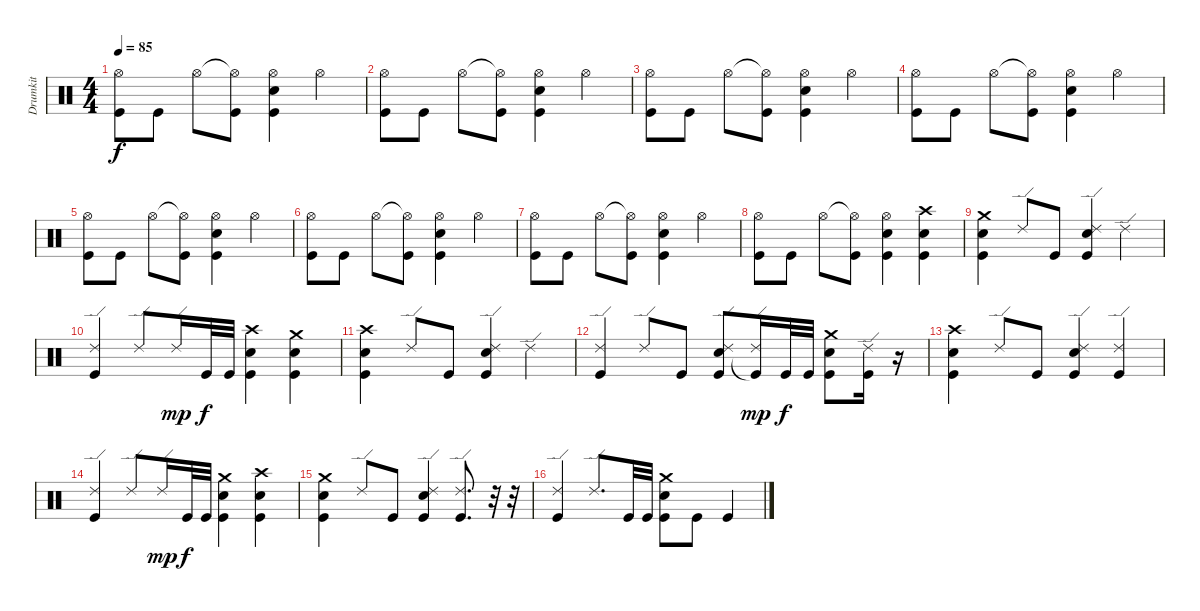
\track ("Drumkit" "Drumkit") {instrument percussion}
\staff {score}
\articulation defaults
\ts (4 4)
\tempo 85
\clef neutral
\ks c
("Hi-Hat (open)" "Kick (hit)").8{dy f} "Kick (hit)".8 "Hi-Hat (open)".8 ("Hi-Hat (open)"{t} "Kick (hit)").8 ("Hi-Hat (open)" "Snare (hit) 2" "Kick (hit)").4 "Hi-Hat (open)".4 |
("Hi-Hat (open)" "Kick (hit)").8 "Kick (hit)".8 "Hi-Hat (open)".8 ("Hi-Hat (open)"{t} "Kick (hit)").8 ("Hi-Hat (open)" "Snare (hit) 2" "Kick (hit)").4 "Hi-Hat (open)".4 |
("Hi-Hat (open)" "Kick (hit)").8 "Kick (hit)".8 "Hi-Hat (open)".8 ("Hi-Hat (open)"{t} "Kick (hit)").8 ("Hi-Hat (open)" "Snare (hit) 2" "Kick (hit)").4 "Hi-Hat (open)".4 |
("Hi-Hat (open)" "Kick (hit)").8 "Kick (hit)".8 "Hi-Hat (open)".8 ("Hi-Hat (open)"{t} "Kick (hit)").8 ("Hi-Hat (open)" "Snare (hit) 2" "Kick (hit)").4 "Hi-Hat (open)".4 |
("Hi-Hat (open)" "Kick (hit)").8 "Kick (hit)".8 "Hi-Hat (open)".8 ("Hi-Hat (open)"{t} "Kick (hit)").8 ("Hi-Hat (open)" "Snare (hit) 2" "Kick (hit)").4 "Hi-Hat (open)".4 |
("Hi-Hat (open)" "Kick (hit)").8 "Kick (hit)".8 "Hi-Hat (open)".8 ("Hi-Hat (open)"{t} "Kick (hit)").8 ("Hi-Hat (open)" "Snare (hit) 2" "Kick (hit)").4 "Hi-Hat (open)".4 |
("Hi-Hat (open)" "Kick (hit)").8 "Kick (hit)".8 "Hi-Hat (open)".8 ("Hi-Hat (open)"{t} "Kick (hit)").8 ("Hi-Hat (open)" "Snare (hit) 2" "Kick (hit)").4 "Hi-Hat (open)".4 |
("Hi-Hat (open)" "Kick (hit)").8 "Kick (hit)".8 "Hi-Hat (open)".8 ("Hi-Hat (open)"{t} "Kick (hit)").8 ("Hi-Hat (open)" "Snare (hit) 2" "Kick (hit)").4 ("Crash high (hit)" "Snare (hit) 2" "Kick (hit)").4 |
("Crash medium (hit)" "Snare (hit) 2" "Kick (hit)").4 "Ride (edge) 2".8 "Kick (hit)".8 ("Ride (edge) 2" "Snare (hit) 2" "Kick (hit)").4 "Ride (edge) 2".4 |
("Ride (edge) 2" "Kick (hit)").4 "Ride (edge) 2".8 "Ride (edge) 2".16{dy mp} "Kick (hit)".32{dy f} "Kick (hit)".32 ("Crash high (hit)" "Snare (hit) 2" "Kick (hit)").4 ("Crash medium (hit)" "Snare (hit) 2" "Kick (hit)").4 |
("Crash high (hit)" "Snare (hit) 2" "Kick (hit)").4 "Ride (edge) 2".8 "Kick (hit)".8 ("Ride (edge) 2" "Snare (hit) 2" "Kick (hit)").4 "Ride (edge) 2".4 |
("Ride (edge) 2" "Kick (hit)").4 "Ride (edge) 2".8 "Kick (hit)".8 ("Ride (edge) 2" "Snare (hit) 2" "Kick (hit)").8 ("Ride (edge) 2" "Kick (hit)"{t}).16{dy mp} "Kick (hit)".32{dy f} "Kick (hit)".32 ("Crash medium (hit)" "Snare (hit) 2" "Kick (hit)").8 ("Ride (edge) 2" "Kick (hit)").16 r.16 |
("Crash high (hit)" "Snare (hit) 2" "Kick (hit)").4 "Ride (edge) 2".8 "Kick (hit)".8 ("Ride (edge) 2" "Snare (hit) 2" "Kick (hit)").4 ("Ride (edge) 2" "Kick (hit)").4 |
("Ride (edge) 2" "Kick (hit)").4 "Ride (edge) 2".8 "Ride (edge) 2".16{dy mp} "Kick (hit)".32{dy f} "Kick (hit)".32 ("Crash medium (hit)" "Snare (hit) 2" "Kick (hit)").4 ("Crash high (hit)" "Snare (hit) 2" "Kick (hit)").4 |
("Crash medium (hit)" "Snare (hit) 2" "Kick (hit)").4 "Ride (edge) 2".8 "Kick (hit)".8 ("Ride (edge) 2" "Snare (hit) 2" "Kick (hit)").4 ("Ride (edge) 2" "Kick (hit)").8{d} r.32 r.32 |
("Ride (edge) 2" "Kick (hit)").4 "Ride (edge) 2".8{d} "Kick (hit)".32 "Kick (hit)".32 ("Crash medium (hit)" "Snare (hit) 2" "Kick (hit)").8 "Kick (hit)".8 "Kick (hit)".4
